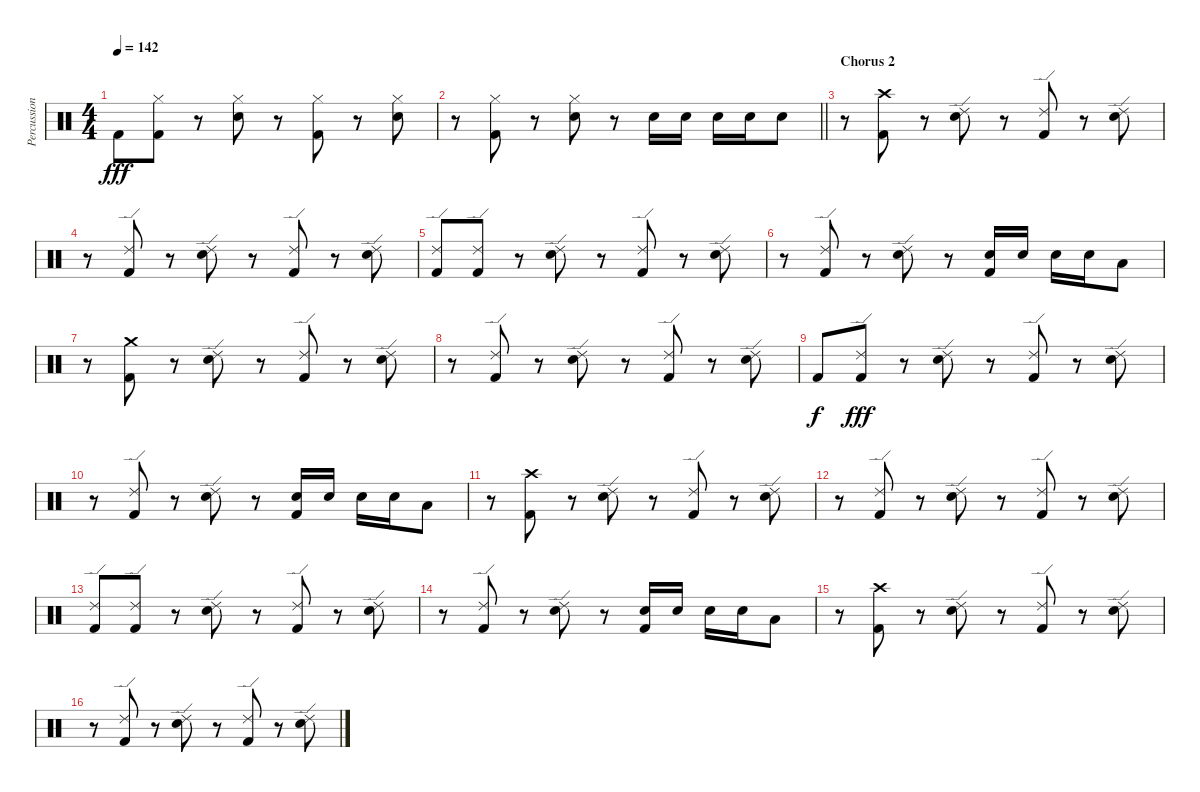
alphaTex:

\track ("Percussion" "Percussion") {instrument percussion}
\staff {score}
\articulation defaults
\ts (4 4)
\tempo 142
\clef neutral
\ks c "Kick (hit) 2".8{dy fff}
("Hi-Hat (closed)" "Kick (hit) 2").8 r.8 ("Hi-Hat (closed)" "Electric Snare (hit)").8 r.8 ("Hi-Hat (closed)" "Kick (hit) 2").8 r.8 ("Hi-Hat (closed)" "Electric Snare (hit)").8 |
\barLineRight lightlight
r.8 ("Hi-Hat (closed)" "Kick (hit) 2").8 r.8 ("Hi-Hat (closed)" "Electric Snare (hit)").8 r.8 "Electric Snare (hit)".16 "Electric Snare (hit)".16 "Electric Snare (hit)".16 "Electric Snare (hit)".16 "Electric Snare (hit)".8 |
\section ("" "Chorus 2")
r.8 ("Crash high (hit)" "Kick (hit) 2").8 r.8 ("Ride (edge) 2" "Electric Snare (hit)").8 r.8 ("Ride (edge) 2" "Kick (hit) 2").8 r.8 ("Ride (edge) 2" "Electric Snare (hit)").8 |
r.8 ("Ride (edge) 2" "Kick (hit) 2").8 r.8 ("Ride (edge) 2" "Electric Snare (hit)").8 r.8 ("Ride (edge) 2" "Kick (hit) 2").8 r.8 ("Ride (edge) 2" "Electric Snare (hit)").8 |
("Ride (edge) 2" "Kick (hit) 2").8 ("Ride (edge) 2" "Kick (hit) 2").8 r.8 ("Ride (edge) 2" "Electric Snare (hit)").8 r.8 ("Ride (edge) 2" "Kick (hit) 2").8 r.8 ("Ride (edge) 2" "Electric Snare (hit)").8 |
r.8 ("Ride (edge) 2" "Kick (hit) 2").8 r.8 ("Ride (edge) 2" "Electric Snare (hit)").8 r.8 ("Electric Snare (hit)" "Kick (hit) 2").16 "Electric Snare (hit)".16 "Electric Snare (hit)".16 "Electric Snare (hit)".16 "Low Tom (hit)".8 |
r.8 ("Crash medium (hit)" "Kick (hit) 2").8 r.8 ("Ride (edge) 2" "Electric Snare (hit)").8 r.8 ("Ride (edge) 2" "Kick (hit) 2").8 r.8 ("Ride (edge) 2" "Electric Snare (hit)").8 |
r.8 ("Ride (edge) 2" "Kick (hit) 2").8 r.8 ("Ride (edge) 2" "Electric Snare (hit)").8 r.8 ("Ride (edge) 2" "Kick (hit) 2").8 r.8 ("Ride (edge) 2" "Electric Snare (hit)").8 |
"Kick (hit) 2".8{dy f} ("Ride (edge) 2" "Kick (hit) 2").8{dy fff} r.8 ("Ride (edge) 2" "Electric Snare (hit)").8 r.8 ("Ride (edge) 2" "Kick (hit) 2").8 r.8 ("Ride (edge) 2" "Electric Snare (hit)").8 |
r.8 ("Ride (edge) 2" "Kick (hit) 2").8 r.8 ("Ride (edge) 2" "Electric Snare (hit)").8 r.8 ("Electric Snare (hit)" "Kick (hit) 2").16 "Electric Snare (hit)".16 "Electric Snare (hit)".16 "Electric Snare (hit)".16 "Low Tom (hit)".8 |
r.8 ("Crash high (hit)" "Kick (hit) 2").8 r.8 ("Ride (edge) 2" "Electric Snare (hit)").8 r.8 ("Ride (edge) 2" "Kick (hit) 2").8 r.8 ("Ride (edge) 2" "Electric Snare (hit)").8 |
r.8 ("Ride (edge) 2" "Kick (hit) 2").8 r.8 ("Ride (edge) 2" "Electric Snare (hit)").8 r.8 ("Ride (edge) 2" "Kick (hit) 2").8 r.8 ("Ride (edge) 2" "Electric Snare (hit)").8 |
("Ride (edge) 2" "Kick (hit) 2").8 ("Ride (edge) 2" "Kick (hit) 2").8 r.8 ("Ride (edge) 2" "Electric Snare (hit)").8 r.8 ("Ride (edge) 2" "Kick (hit) 2").8 r.8 ("Ride (edge) 2" "Electric Snare (hit)").8 |
r.8 ("Ride (edge) 2" "Kick (hit) 2").8 r.8 ("Ride (edge) 2" "Electric Snare (hit)").8 r.8 ("Electric Snare (hit)" "Kick (hit) 2").16 "Electric Snare (hit)".16 "Electric Snare (hit)".16 "Electric Snare (hit)".16 "Low Tom (hit)".8 |
r.8 ("Crash high (hit)" "Kick (hit) 2").8 r.8 ("Ride (edge) 2" "Electric Snare (hit)").8 r.8 ("Ride (edge) 2" "Kick (hit) 2").8 r.8 ("Ride (edge) 2" "Electric Snare (hit)").8 |
r.8 ("Ride (edge) 2" "Kick (hit) 2").8 r.8 ("Ride (edge) 2" "Electric Snare (hit)").8 r.8 ("Ride (edge) 2" "Kick (hit) 2").8 r.8 ("Ride (edge) 2" "Electric Snare (hit)").8
